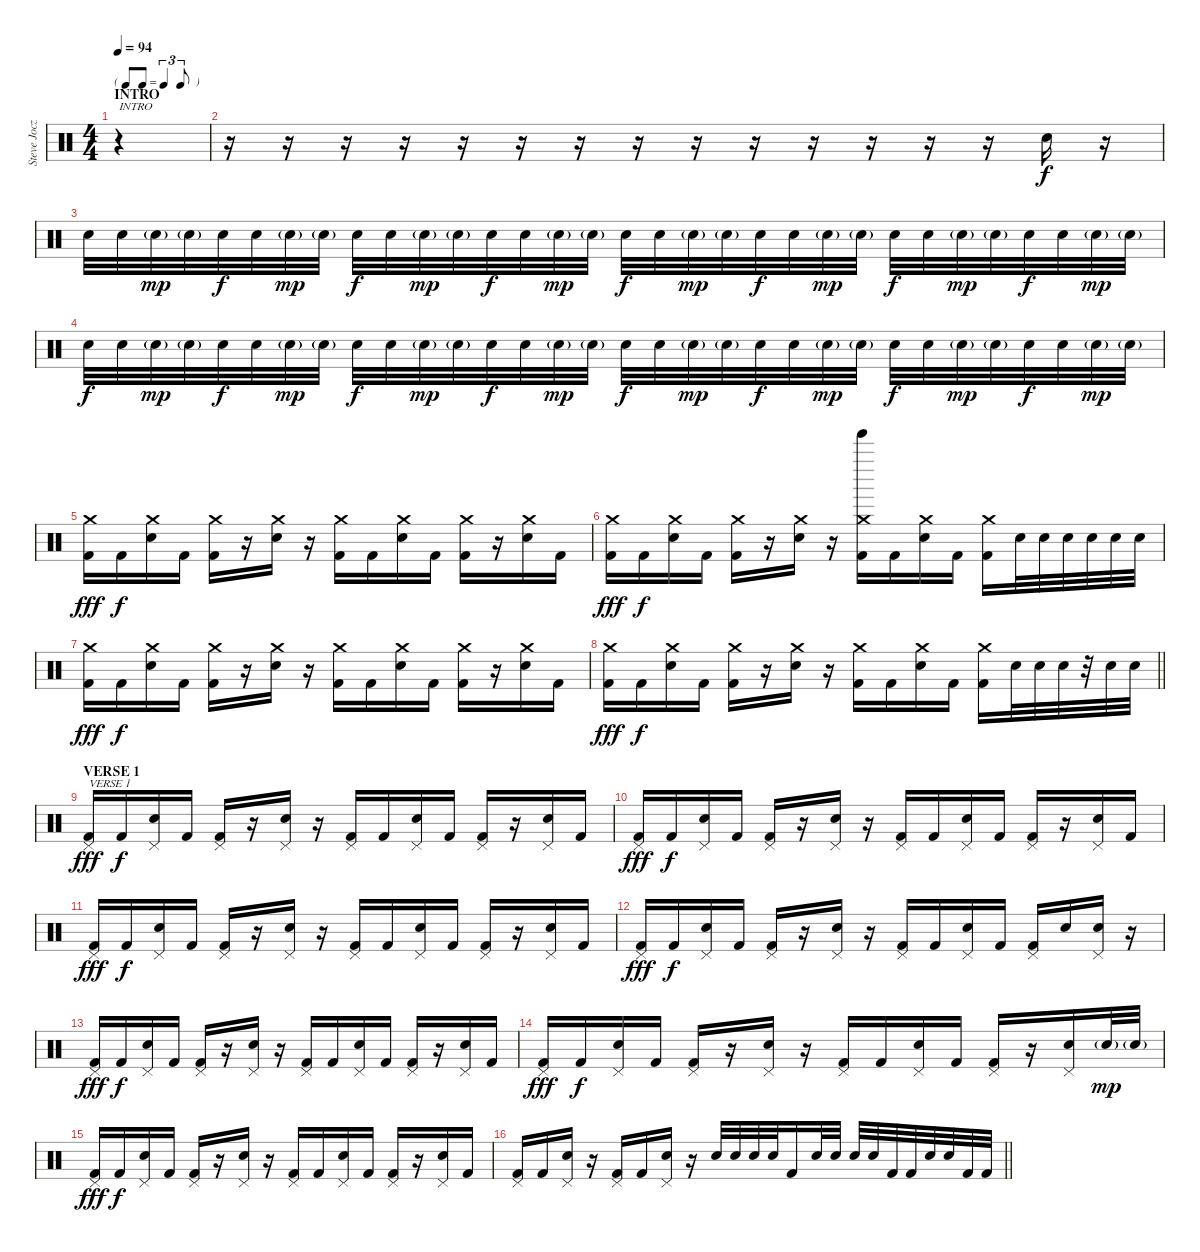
\track ("Steve Jocz   \"Stevo32\"        (drums)" "Steve Jocz") {instrument percussion}
\staff {score}
\articulation defaults
\ts (4 4)
\tf triplet8th
\section ("" "INTRO")
\tempo 94
\clef neutral
\ks c
r.4{txt "INTRO" dy f} |
r.16 r.16 r.16 r.16 r.16 r.16 r.16 r.16 r.16 r.16 r.16 r.16 r.16 r.16 "Electric Snare (hit)".16 r.16 |
"Electric Snare (hit)".32 "Electric Snare (hit)".32 "Electric Snare (hit)"{g}.32{dy mp} "Electric Snare (hit)"{g}.32 "Electric Snare (hit)".32{dy f} "Electric Snare (hit)".32 "Electric Snare (hit)"{g}.32{dy mp} "Electric Snare (hit)"{g}.32 "Electric Snare (hit)".32{dy f} "Electric Snare (hit)".32 "Electric Snare (hit)"{g}.32{dy mp} "Electric Snare (hit)"{g}.32 "Electric Snare (hit)".32{dy f} "Electric Snare (hit)".32 "Electric Snare (hit)"{g}.32{dy mp} "Electric Snare (hit)"{g}.32 "Electric Snare (hit)".32{dy f} "Electric Snare (hit)".32 "Electric Snare (hit)"{g}.32{dy mp} "Electric Snare (hit)"{g}.32 "Electric Snare (hit)".32{dy f} "Electric Snare (hit)".32 "Electric Snare (hit)"{g}.32{dy mp} "Electric Snare (hit)"{g}.32 "Electric Snare (hit)".32{dy f} "Electric Snare (hit)".32 "Electric Snare (hit)"{g}.32{dy mp} "Electric Snare (hit)"{g}.32 "Electric Snare (hit)".32{dy f} "Electric Snare (hit)".32 "Electric Snare (hit)"{g}.32{dy mp} "Electric Snare (hit)"{g}.32 |
"Electric Snare (hit)".32{dy f} "Electric Snare (hit)".32 "Electric Snare (hit)"{g}.32{dy mp} "Electric Snare (hit)"{g}.32 "Electric Snare (hit)".32{dy f} "Electric Snare (hit)".32 "Electric Snare (hit)"{g}.32{dy mp} "Electric Snare (hit)"{g}.32 "Electric Snare (hit)".32{dy f} "Electric Snare (hit)".32 "Electric Snare (hit)"{g}.32{dy mp} "Electric Snare (hit)"{g}.32 "Electric Snare (hit)".32{dy f} "Electric Snare (hit)".32 "Electric Snare (hit)"{g}.32{dy mp} "Electric Snare (hit)"{g}.32 "Electric Snare (hit)".32{dy f} "Electric Snare (hit)".32 "Electric Snare (hit)"{g}.32{dy mp} "Electric Snare (hit)"{g}.32 "Electric Snare (hit)".32{dy f} "Electric Snare (hit)".32 "Electric Snare (hit)"{g}.32{dy mp} "Electric Snare (hit)"{g}.32 "Electric Snare (hit)".32{dy f} "Electric Snare (hit)".32 "Electric Snare (hit)"{g}.32{dy mp} "Electric Snare (hit)"{g}.32 "Electric Snare (hit)".32{dy f} "Electric Snare (hit)".32 "Electric Snare (hit)"{g}.32{dy mp} "Electric Snare (hit)"{g}.32 |
("Crash medium (hit)" "Kick (hit) 2").16{dy fff} "Kick (hit) 2".16{dy f} ("Crash medium (hit)" "Electric Snare (hit)").16 "Kick (hit) 2".16 ("Crash medium (hit)" "Kick (hit) 2").16 r.16 ("Crash medium (hit)" "Electric Snare (hit)").16 r.16 ("Crash medium (hit)" "Kick (hit) 2").16 "Kick (hit) 2".16 ("Crash medium (hit)" "Electric Snare (hit)").16 "Kick (hit) 2".16 ("Crash medium (hit)" "Kick (hit) 2").16 r.16 ("Crash medium (hit)" "Electric Snare (hit)").16 "Kick (hit) 2".16 |
("Crash medium (hit)" "Kick (hit) 2").16{dy fff} "Kick (hit) 2".16{dy f} ("Crash medium (hit)" "Electric Snare (hit)").16 "Kick (hit) 2".16 ("Crash medium (hit)" "Kick (hit) 2").16 r.16 ("Crash medium (hit)" "Electric Snare (hit)").16 r.16 ("Tinkle Bell (hit)" "Crash medium (hit)" "Kick (hit) 2").16 "Kick (hit) 2".16 ("Crash medium (hit)" "Electric Snare (hit)").16 "Kick (hit) 2".16 ("Crash medium (hit)" "Kick (hit) 2").16 "Electric Snare (hit)".32 "Electric Snare (hit)".32 "Electric Snare (hit)".32 "Electric Snare (hit)".32 "Electric Snare (hit)".32 "Electric Snare (hit)".32 |
("Crash medium (hit)" "Kick (hit) 2").16{dy fff} "Kick (hit) 2".16{dy f} ("Crash medium (hit)" "Electric Snare (hit)").16 "Kick (hit) 2".16 ("Crash medium (hit)" "Kick (hit) 2").16 r.16 ("Crash medium (hit)" "Electric Snare (hit)").16 r.16 ("Crash medium (hit)" "Kick (hit) 2").16 "Kick (hit) 2".16 ("Crash medium (hit)" "Electric Snare (hit)").16 "Kick (hit) 2".16 ("Crash medium (hit)" "Kick (hit) 2").16 r.16 ("Crash medium (hit)" "Electric Snare (hit)").16 "Kick (hit) 2".16 |
\barLineRight lightlight
("Crash medium (hit)" "Kick (hit) 2").16{dy fff} "Kick (hit) 2".16{dy f} ("Crash medium (hit)" "Electric Snare (hit)").16 "Kick (hit) 2".16 ("Crash medium (hit)" "Kick (hit) 2").16 r.16 ("Crash medium (hit)" "Electric Snare (hit)").16 r.16 ("Crash medium (hit)" "Kick (hit) 2").16 "Kick (hit) 2".16 ("Crash medium (hit)" "Electric Snare (hit)").16 "Kick (hit) 2".16 ("Crash medium (hit)" "Kick (hit) 2").16 "Electric Snare (hit)".32 "Electric Snare (hit)".32 "Electric Snare (hit)".32 r.32 "Electric Snare (hit)".32 "Electric Snare (hit)".32 |
\section ("" "VERSE 1")
("Pedal Hi-Hat (hit)" "Kick (hit) 2").16{txt "VERSE 1" dy fff} "Kick (hit) 2".16{dy f} ("Pedal Hi-Hat (hit)" "Electric Snare (hit)").16 "Kick (hit) 2".16 ("Pedal Hi-Hat (hit)" "Kick (hit) 2").16 r.16 ("Pedal Hi-Hat (hit)" "Electric Snare (hit)").16 r.16 ("Pedal Hi-Hat (hit)" "Kick (hit) 2").16 "Kick (hit) 2".16 ("Pedal Hi-Hat (hit)" "Electric Snare (hit)").16 "Kick (hit) 2".16 ("Pedal Hi-Hat (hit)" "Kick (hit) 2").16 r.16 ("Pedal Hi-Hat (hit)" "Electric Snare (hit)").16 "Kick (hit) 2".16 |
("Pedal Hi-Hat (hit)" "Kick (hit) 2").16{dy fff} "Kick (hit) 2".16{dy f} ("Pedal Hi-Hat (hit)" "Electric Snare (hit)").16 "Kick (hit) 2".16 ("Pedal Hi-Hat (hit)" "Kick (hit) 2").16 r.16 ("Pedal Hi-Hat (hit)" "Electric Snare (hit)").16 r.16 ("Pedal Hi-Hat (hit)" "Kick (hit) 2").16 "Kick (hit) 2".16 ("Pedal Hi-Hat (hit)" "Electric Snare (hit)").16 "Kick (hit) 2".16 ("Pedal Hi-Hat (hit)" "Kick (hit) 2").16 r.16 ("Pedal Hi-Hat (hit)" "Electric Snare (hit)").16 "Kick (hit) 2".16 |
("Pedal Hi-Hat (hit)" "Kick (hit) 2").16{dy fff} "Kick (hit) 2".16{dy f} ("Pedal Hi-Hat (hit)" "Electric Snare (hit)").16 "Kick (hit) 2".16 ("Pedal Hi-Hat (hit)" "Kick (hit) 2").16 r.16 ("Pedal Hi-Hat (hit)" "Electric Snare (hit)").16 r.16 ("Pedal Hi-Hat (hit)" "Kick (hit) 2").16 "Kick (hit) 2".16 ("Pedal Hi-Hat (hit)" "Electric Snare (hit)").16 "Kick (hit) 2".16 ("Pedal Hi-Hat (hit)" "Kick (hit) 2").16 r.16 ("Pedal Hi-Hat (hit)" "Electric Snare (hit)").16 "Kick (hit) 2".16 |
("Pedal Hi-Hat (hit)" "Kick (hit) 2").16{dy fff} "Kick (hit) 2".16{dy f} ("Pedal Hi-Hat (hit)" "Electric Snare (hit)").16 "Kick (hit) 2".16 ("Pedal Hi-Hat (hit)" "Kick (hit) 2").16 r.16 ("Pedal Hi-Hat (hit)" "Electric Snare (hit)").16 r.16 ("Pedal Hi-Hat (hit)" "Kick (hit) 2").16 "Kick (hit) 2".16 ("Pedal Hi-Hat (hit)" "Electric Snare (hit)").16 "Kick (hit) 2".16 ("Pedal Hi-Hat (hit)" "Kick (hit) 2").16 "Electric Snare (hit)".16 ("Pedal Hi-Hat (hit)" "Electric Snare (hit)").16 r.16 |
("Pedal Hi-Hat (hit)" "Kick (hit) 2").16{dy fff} "Kick (hit) 2".16{dy f} ("Pedal Hi-Hat (hit)" "Electric Snare (hit)").16 "Kick (hit) 2".16 ("Pedal Hi-Hat (hit)" "Kick (hit) 2").16 r.16 ("Pedal Hi-Hat (hit)" "Electric Snare (hit)").16 r.16 ("Pedal Hi-Hat (hit)" "Kick (hit) 2").16 "Kick (hit) 2".16 ("Pedal Hi-Hat (hit)" "Electric Snare (hit)").16 "Kick (hit) 2".16 ("Pedal Hi-Hat (hit)" "Kick (hit) 2").16 r.16 ("Pedal Hi-Hat (hit)" "Electric Snare (hit)").16 "Kick (hit) 2".16 |
("Pedal Hi-Hat (hit)" "Kick (hit) 2").16{dy fff} "Kick (hit) 2".16{dy f} ("Pedal Hi-Hat (hit)" "Electric Snare (hit)").16 "Kick (hit) 2".16 ("Pedal Hi-Hat (hit)" "Kick (hit) 2").16 r.16 ("Pedal Hi-Hat (hit)" "Electric Snare (hit)").16 r.16 ("Pedal Hi-Hat (hit)" "Kick (hit) 2").16 "Kick (hit) 2".16 ("Pedal Hi-Hat (hit)" "Electric Snare (hit)").16 "Kick (hit) 2".16 ("Pedal Hi-Hat (hit)" "Kick (hit) 2").16 r.16 ("Pedal Hi-Hat (hit)" "Electric Snare (hit)").16 "Electric Snare (hit)"{g}.32{dy mp} "Electric Snare (hit)"{g}.32 |
("Pedal Hi-Hat (hit)" "Kick (hit) 2").16{dy fff} "Kick (hit) 2".16{dy f} ("Pedal Hi-Hat (hit)" "Electric Snare (hit)").16 "Kick (hit) 2".16 ("Pedal Hi-Hat (hit)" "Kick (hit) 2").16 r.16 ("Pedal Hi-Hat (hit)" "Electric Snare (hit)").16 r.16 ("Pedal Hi-Hat (hit)" "Kick (hit) 2").16 "Kick (hit) 2".16 ("Pedal Hi-Hat (hit)" "Electric Snare (hit)").16 "Kick (hit) 2".16 ("Pedal Hi-Hat (hit)" "Kick (hit) 2").16 r.16 ("Pedal Hi-Hat (hit)" "Electric Snare (hit)").16 "Kick (hit) 2".16 |
\barLineRight lightlight
("Pedal Hi-Hat (hit)" "Kick (hit) 2").16 "Kick (hit) 2".16 ("Pedal Hi-Hat (hit)" "Electric Snare (hit)").16 r.16 ("Pedal Hi-Hat (hit)" "Kick (hit) 2").16 "Kick (hit) 2".16 ("Pedal Hi-Hat (hit)" "Electric Snare (hit)").16 r.16 "Electric Snare (hit)".32 "Electric Snare (hit)".32 "Electric Snare (hit)".32 "Electric Snare (hit)".32 "Kick (hit) 2".16 "Electric Snare (hit)".32 "Electric Snare (hit)".32 "Electric Snare (hit)".32 "Electric Snare (hit)".32 "Kick (hit) 2".32 "Kick (hit) 2".32 "Electric Snare (hit)".32 "Electric Snare (hit)".32 "Kick (hit) 2".32 "Kick (hit) 2".32
